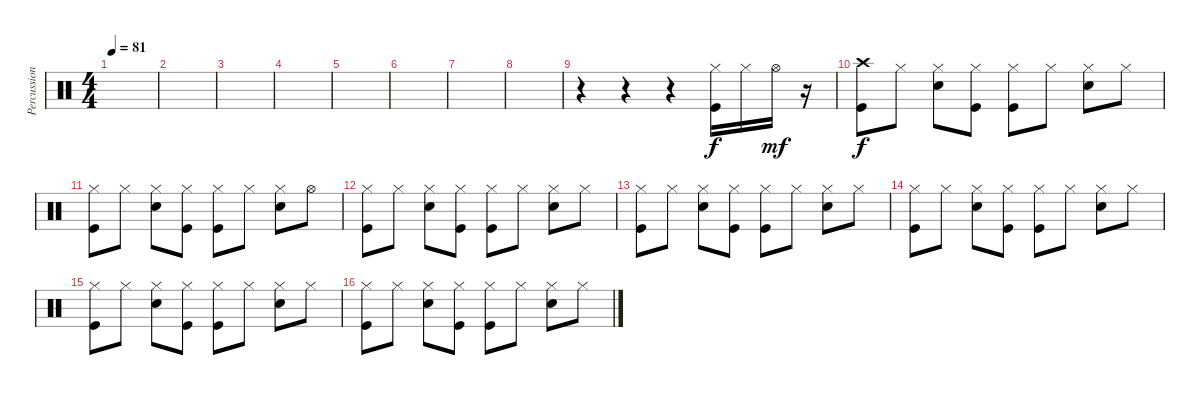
\track ("Percussion" "Percussion") {instrument percussion}
\staff {score}
\articulation defaults
\ts (4 4)
\tempo 81
\clef neutral
\ks c
|
|
|
|
|
|
|
|
r.4 r.4 r.4 ("Hi-Hat (closed)" "Kick (hit)").16 "Hi-Hat (closed)".16 "Hi-Hat (open)".16{dy mf} r.16 |
("Crash high (hit)" "Kick (hit)").8{dy f} "Hi-Hat (closed)".8 ("Hi-Hat (closed)" "Electric Snare (hit)").8 ("Hi-Hat (closed)" "Kick (hit)").8 ("Hi-Hat (closed)" "Kick (hit)").8 "Hi-Hat (closed)".8 ("Hi-Hat (closed)" "Electric Snare (hit)").8 "Hi-Hat (closed)".8 |
("Hi-Hat (closed)" "Kick (hit)").8 "Hi-Hat (closed)".8 ("Hi-Hat (closed)" "Electric Snare (hit)").8 ("Hi-Hat (closed)" "Kick (hit)").8 ("Hi-Hat (closed)" "Kick (hit)").8 "Hi-Hat (closed)".8 ("Hi-Hat (closed)" "Electric Snare (hit)").8 "Hi-Hat (open)".8 |
("Hi-Hat (closed)" "Kick (hit)").8 "Hi-Hat (closed)".8 ("Hi-Hat (closed)" "Electric Snare (hit)").8 ("Hi-Hat (closed)" "Kick (hit)").8 ("Hi-Hat (closed)" "Kick (hit)").8 "Hi-Hat (closed)".8 ("Hi-Hat (closed)" "Electric Snare (hit)").8 "Hi-Hat (closed)".8 |
("Hi-Hat (closed)" "Kick (hit)").8 "Hi-Hat (closed)".8 ("Hi-Hat (closed)" "Electric Snare (hit)").8 ("Hi-Hat (closed)" "Kick (hit)").8 ("Hi-Hat (closed)" "Kick (hit)").8 "Hi-Hat (closed)".8 ("Hi-Hat (closed)" "Electric Snare (hit)").8 "Hi-Hat (closed)".8 |
("Hi-Hat (closed)" "Kick (hit)").8 "Hi-Hat (closed)".8 ("Hi-Hat (closed)" "Electric Snare (hit)").8 ("Hi-Hat (closed)" "Kick (hit)").8 ("Hi-Hat (closed)" "Kick (hit)").8 "Hi-Hat (closed)".8 ("Hi-Hat (closed)" "Electric Snare (hit)").8 "Hi-Hat (closed)".8 |
("Hi-Hat (closed)" "Kick (hit)").8 "Hi-Hat (closed)".8 ("Hi-Hat (closed)" "Electric Snare (hit)").8 ("Hi-Hat (closed)" "Kick (hit)").8 ("Hi-Hat (closed)" "Kick (hit)").8 "Hi-Hat (closed)".8 ("Hi-Hat (closed)" "Electric Snare (hit)").8 "Hi-Hat (closed)".8 |
("Hi-Hat (closed)" "Kick (hit)").8 "Hi-Hat (closed)".8 ("Hi-Hat (closed)" "Electric Snare (hit)").8 ("Hi-Hat (closed)" "Kick (hit)").8 ("Hi-Hat (closed)" "Kick (hit)").8 "Hi-Hat (closed)".8 ("Hi-Hat (closed)" "Electric Snare (hit)").8 "Hi-Hat (closed)".8
